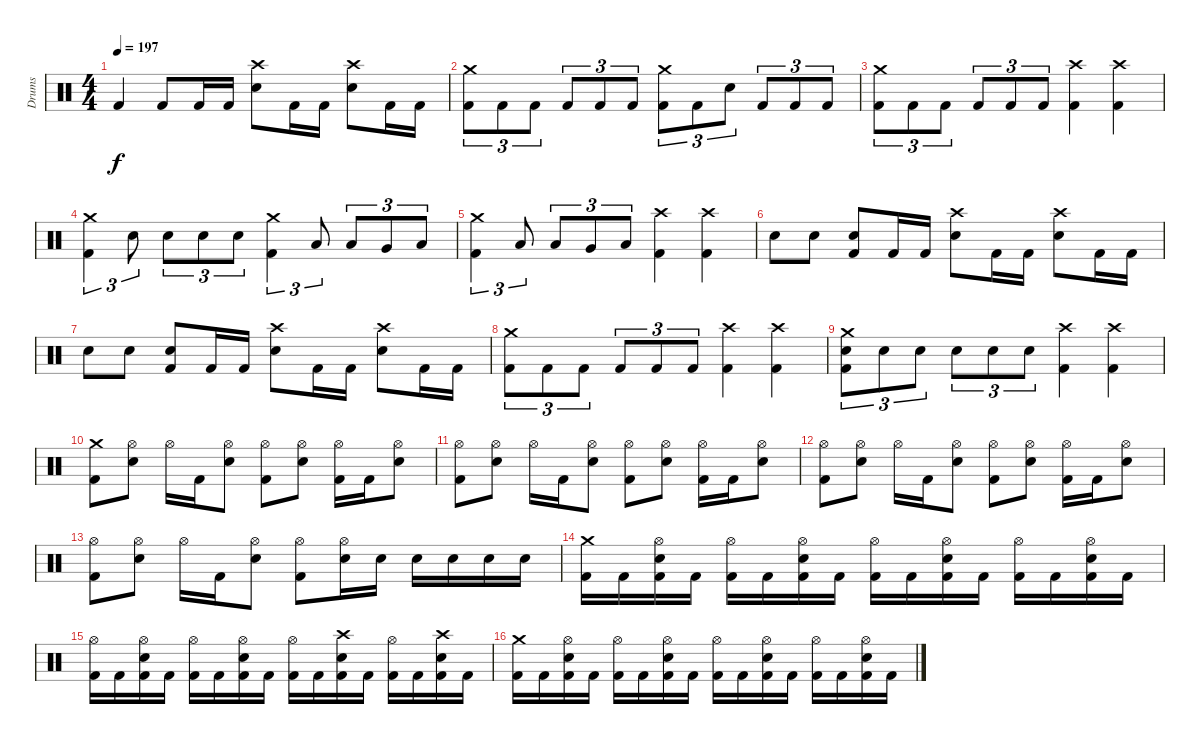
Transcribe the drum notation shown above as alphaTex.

\track ("Drums" "Drums") {instrument percussion}
\staff {score}
\articulation defaults
\ts (4 4)
\tempo 197
\clef neutral
\ks c "Kick (hit) 2".4{dy f} "Kick (hit) 2".8 "Kick (hit) 2".16 "Kick (hit) 2".16
("Crash high (hit)" "Snare (hit) 2").8 "Kick (hit) 2".16 "Kick (hit) 2".16 ("Crash high (hit)" "Snare (hit) 2").8 "Kick (hit) 2".16 "Kick (hit) 2".16 |
("Crash medium (hit)" "Kick (hit) 2").8{tu (3 2)} "Kick (hit) 2".8{tu (3 2)} "Kick (hit) 2".8{tu (3 2)} "Kick (hit) 2".8{tu (3 2)} "Kick (hit) 2".8{tu (3 2)} "Kick (hit) 2".8{tu (3 2)} ("Crash medium (hit)" "Kick (hit) 2").8{tu (3 2)} "Kick (hit) 2".8{tu (3 2)} "Snare (hit)".8{tu (3 2)} "Kick (hit) 2".8{tu (3 2)} "Kick (hit) 2".8{tu (3 2)} "Kick (hit) 2".8{tu (3 2)} |
("Crash medium (hit)" "Kick (hit) 2").8{tu (3 2)} "Kick (hit) 2".8{tu (3 2)} "Kick (hit) 2".8{tu (3 2)} "Kick (hit) 2".8{tu (3 2)} "Kick (hit) 2".8{tu (3 2)} "Kick (hit) 2".8{tu (3 2)} ("Crash high (hit)" "Kick (hit) 2").4 ("Crash high (hit)" "Kick (hit) 2").4 |
("Crash medium (hit)" "Kick (hit) 2").4{tu (3 2)} "Snare (hit) 2".8{tu (3 2)} "Snare (hit) 2".8{tu (3 2)} "Snare (hit) 2".8{tu (3 2)} "Snare (hit) 2".8{tu (3 2)} ("Crash medium (hit)" "Kick (hit) 2").4{tu (3 2)} "Low Tom (hit)".8{tu (3 2)} "Low Tom (hit)".8{tu (3 2)} "Very Low Tom (hit)".8{tu (3 2)} "Low Floor Tom (hit)".8{tu (3 2)} |
("Crash medium (hit)" "Kick (hit) 2").4{tu (3 2)} "Low Tom (hit)".8{tu (3 2)} "Low Tom (hit)".8{tu (3 2)} "Very Low Tom (hit)".8{tu (3 2)} "Low Floor Tom (hit)".8{tu (3 2)} ("Crash high (hit)" "Kick (hit) 2").4 ("Crash high (hit)" "Kick (hit) 2").4 |
"Snare (hit) 2".8 "Snare (hit) 2".8 ("Snare (hit) 2" "Kick (hit) 2").8 "Kick (hit) 2".16 "Kick (hit) 2".16 ("Crash high (hit)" "Snare (hit) 2").8 "Kick (hit) 2".16 "Kick (hit) 2".16 ("Crash high (hit)" "Snare (hit) 2").8 "Kick (hit) 2".16 "Kick (hit) 2".16 |
"Snare (hit) 2".8 "Snare (hit) 2".8 ("Snare (hit) 2" "Kick (hit) 2").8 "Kick (hit) 2".16 "Kick (hit) 2".16 ("Crash high (hit)" "Snare (hit) 2").8 "Kick (hit) 2".16 "Kick (hit) 2".16 ("Crash high (hit)" "Snare (hit) 2").8 "Kick (hit) 2".16 "Kick (hit) 2".16 |
("Crash medium (hit)" "Kick (hit) 2").8{tu (3 2)} "Kick (hit) 2".8{tu (3 2)} "Kick (hit) 2".8{tu (3 2)} "Kick (hit) 2".8{tu (3 2)} "Kick (hit) 2".8{tu (3 2)} "Kick (hit) 2".8{tu (3 2)} ("Crash high (hit)" "Kick (hit) 2").4 ("Crash high (hit)" "Kick (hit) 2").4 |
("Crash medium (hit)" "Snare (hit) 2" "Kick (hit) 2").8{tu (3 2)} "Snare (hit) 2".8{tu (3 2)} "Snare (hit) 2".8{tu (3 2)} "Snare (hit) 2".8{tu (3 2)} "Snare (hit) 2".8{tu (3 2)} "Snare (hit) 2".8{tu (3 2)} ("Crash high (hit)" "Kick (hit) 2").4 ("Crash high (hit)" "Kick (hit) 2").4 |
("Crash medium (hit)" "Kick (hit) 2").8 ("Hi-Hat (open)" "Snare (hit) 2").8 "Hi-Hat (open)".16 "Kick (hit) 2".16 ("Hi-Hat (open)" "Snare (hit) 2").8 ("Hi-Hat (open)" "Kick (hit) 2").8 ("Hi-Hat (open)" "Snare (hit) 2").8 ("Hi-Hat (open)" "Kick (hit) 2").16 "Kick (hit) 2".16 ("Hi-Hat (open)" "Snare (hit) 2").8 |
("Hi-Hat (open)" "Kick (hit) 2").8 ("Hi-Hat (open)" "Snare (hit) 2").8 "Hi-Hat (open)".16 "Kick (hit) 2".16 ("Hi-Hat (open)" "Snare (hit) 2").8 ("Hi-Hat (open)" "Kick (hit) 2").8 ("Hi-Hat (open)" "Snare (hit) 2").8 ("Hi-Hat (open)" "Kick (hit) 2").16 "Kick (hit) 2".16 ("Hi-Hat (open)" "Snare (hit) 2").8 |
("Hi-Hat (open)" "Kick (hit) 2").8 ("Hi-Hat (open)" "Snare (hit) 2").8 "Hi-Hat (open)".16 "Kick (hit) 2".16 ("Hi-Hat (open)" "Snare (hit) 2").8 ("Hi-Hat (open)" "Kick (hit) 2").8 ("Hi-Hat (open)" "Snare (hit) 2").8 ("Hi-Hat (open)" "Kick (hit) 2").16 "Kick (hit) 2".16 ("Hi-Hat (open)" "Snare (hit) 2").8 |
("Hi-Hat (open)" "Kick (hit) 2").8 ("Hi-Hat (open)" "Snare (hit) 2").8 "Hi-Hat (open)".16 "Kick (hit) 2".16 ("Hi-Hat (open)" "Snare (hit) 2").8 ("Hi-Hat (open)" "Kick (hit) 2").8 ("Hi-Hat (open)" "Snare (hit) 2").16 "Snare (hit) 2".16 "Snare (hit) 2".16 "Snare (hit) 2".16 "Snare (hit) 2".16 "Snare (hit) 2".16 |
("Crash medium (hit)" "Kick (hit) 2").16 "Kick (hit) 2".16 ("Hi-Hat (open)" "Snare (hit) 2" "Kick (hit) 2").16 "Kick (hit) 2".16 ("Hi-Hat (open)" "Kick (hit) 2").16 "Kick (hit) 2".16 ("Hi-Hat (open)" "Snare (hit) 2" "Kick (hit) 2").16 "Kick (hit) 2".16 ("Hi-Hat (open)" "Kick (hit) 2").16 "Kick (hit) 2".16 ("Hi-Hat (open)" "Snare (hit) 2" "Kick (hit) 2").16 "Kick (hit) 2".16 ("Hi-Hat (open)" "Kick (hit) 2").16 "Kick (hit) 2".16 ("Hi-Hat (open)" "Snare (hit) 2" "Kick (hit) 2").16 "Kick (hit) 2".16 |
("Hi-Hat (open)" "Kick (hit) 2").16 "Kick (hit) 2".16 ("Hi-Hat (open)" "Snare (hit) 2" "Kick (hit) 2").16 "Kick (hit) 2".16 ("Hi-Hat (open)" "Kick (hit) 2").16 "Kick (hit) 2".16 ("Hi-Hat (open)" "Snare (hit) 2" "Kick (hit) 2").16 "Kick (hit) 2".16 ("Hi-Hat (open)" "Kick (hit) 2").16 "Kick (hit) 2".16 ("Crash high (hit)" "Snare (hit) 2" "Kick (hit) 2").16 "Kick (hit) 2".16 ("Hi-Hat (open)" "Kick (hit) 2").16 "Kick (hit) 2".16 ("Crash high (hit)" "Snare (hit) 2" "Kick (hit) 2").16 "Kick (hit) 2".16 |
("Crash medium (hit)" "Kick (hit) 2").16 "Kick (hit) 2".16 ("Hi-Hat (open)" "Snare (hit) 2" "Kick (hit) 2").16 "Kick (hit) 2".16 ("Hi-Hat (open)" "Kick (hit) 2").16 "Kick (hit) 2".16 ("Hi-Hat (open)" "Snare (hit) 2" "Kick (hit) 2").16 "Kick (hit) 2".16 ("Hi-Hat (open)" "Kick (hit) 2").16 "Kick (hit) 2".16 ("Hi-Hat (open)" "Snare (hit) 2" "Kick (hit) 2").16 "Kick (hit) 2".16 ("Hi-Hat (open)" "Kick (hit) 2").16 "Kick (hit) 2".16 ("Hi-Hat (open)" "Snare (hit) 2" "Kick (hit) 2").16 "Kick (hit) 2".16
